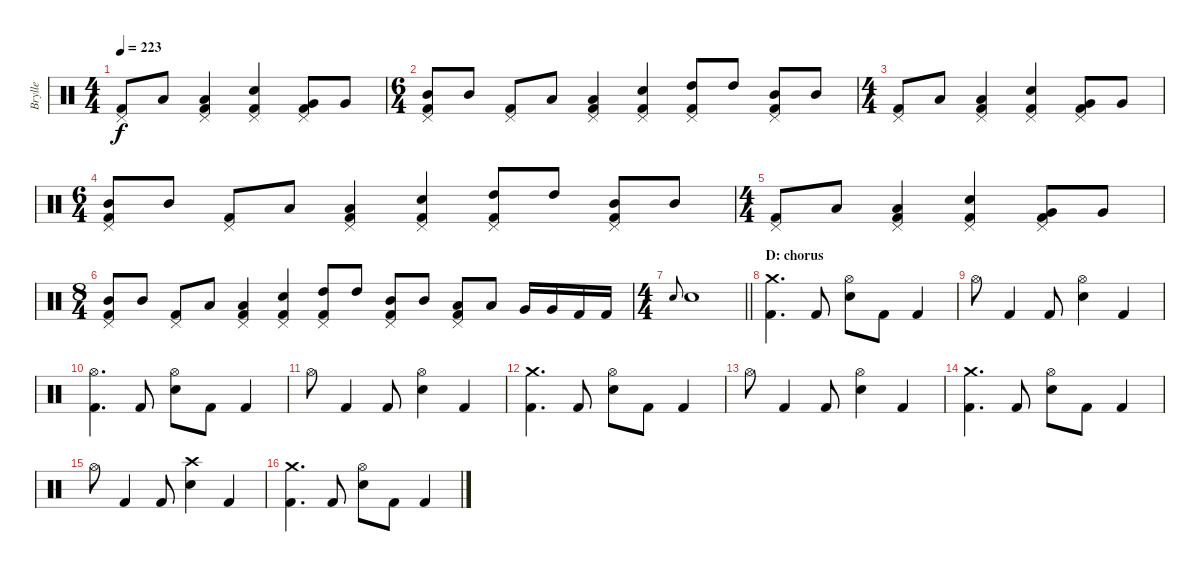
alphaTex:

\track ("Brylle" "Brylle") {instrument percussion}
\staff {score}
\articulation defaults
\ts (4 4)
\tempo 223
\clef neutral
\ks c
("Pedal Hi-Hat (hit)" "Kick (hit) 2").8{dy f} "Low Tom (hit)".8 ("Pedal Hi-Hat (hit)" "Low Tom (hit)" "Kick (hit) 2").4 ("Pedal Hi-Hat (hit)" "Electric Snare (hit)" "Kick (hit) 2").4 ("Pedal Hi-Hat (hit)" "Very Low Tom (hit)" "Kick (hit) 2").8 "Very Low Tom (hit)".8 |
\ts (6 4)
("Pedal Hi-Hat (hit)" "Mid Tom (hit)" "Kick (hit) 2").8 "Mid Tom (hit)".8 ("Pedal Hi-Hat (hit)" "Kick (hit) 2").8 "Low Tom (hit)".8 ("Pedal Hi-Hat (hit)" "Low Tom (hit)" "Kick (hit) 2").4 ("Pedal Hi-Hat (hit)" "Electric Snare (hit)" "Kick (hit) 2").4 ("Pedal Hi-Hat (hit)" "High Tom (hit)" "Kick (hit) 2").8 "High Tom (hit)".8 ("Pedal Hi-Hat (hit)" "Mid Tom (hit)" "Kick (hit) 2").8 "Mid Tom (hit)".8 |
\ts (4 4)
("Pedal Hi-Hat (hit)" "Kick (hit) 2").8 "Low Tom (hit)".8 ("Pedal Hi-Hat (hit)" "Low Tom (hit)" "Kick (hit) 2").4 ("Pedal Hi-Hat (hit)" "Electric Snare (hit)" "Kick (hit) 2").4 ("Pedal Hi-Hat (hit)" "Very Low Tom (hit)" "Kick (hit) 2").8 "Very Low Tom (hit)".8 |
\ts (6 4)
("Pedal Hi-Hat (hit)" "Mid Tom (hit)" "Kick (hit) 2").8 "Mid Tom (hit)".8 ("Pedal Hi-Hat (hit)" "Kick (hit) 2").8 "Low Tom (hit)".8 ("Pedal Hi-Hat (hit)" "Low Tom (hit)" "Kick (hit) 2").4 ("Pedal Hi-Hat (hit)" "Electric Snare (hit)" "Kick (hit) 2").4 ("Pedal Hi-Hat (hit)" "High Tom (hit)" "Kick (hit) 2").8 "High Tom (hit)".8 ("Pedal Hi-Hat (hit)" "Mid Tom (hit)" "Kick (hit) 2").8 "Mid Tom (hit)".8 |
\ts (4 4)
("Pedal Hi-Hat (hit)" "Kick (hit) 2").8 "Low Tom (hit)".8 ("Pedal Hi-Hat (hit)" "Low Tom (hit)" "Kick (hit) 2").4 ("Pedal Hi-Hat (hit)" "Electric Snare (hit)" "Kick (hit) 2").4 ("Pedal Hi-Hat (hit)" "Very Low Tom (hit)" "Kick (hit) 2").8 "Very Low Tom (hit)".8 |
\ts (8 4)
("Pedal Hi-Hat (hit)" "Mid Tom (hit)" "Kick (hit) 2").8 "Mid Tom (hit)".8 ("Pedal Hi-Hat (hit)" "Kick (hit) 2").8 "Low Tom (hit)".8 ("Pedal Hi-Hat (hit)" "Low Tom (hit)" "Kick (hit) 2").4 ("Pedal Hi-Hat (hit)" "Electric Snare (hit)" "Kick (hit) 2").4 ("Pedal Hi-Hat (hit)" "High Tom (hit)" "Kick (hit) 2").8 "High Tom (hit)".8 ("Pedal Hi-Hat (hit)" "Mid Tom (hit)" "Kick (hit) 2").8 "Mid Tom (hit)".8 ("Pedal Hi-Hat (hit)" "Low Tom (hit)" "Kick (hit) 2").8 "Low Tom (hit)".8 "Very Low Tom (hit)".16 "Very Low Tom (hit)".16 "Kick (hit) 2".16 "Kick (hit) 2".16 |
\ts (4 4)
\barLineRight lightlight "Electric Snare (hit)".8{gr onbeat} "Electric Snare (hit)".1
|
\section ("" "D: chorus")
("Crash medium (hit)" "Kick (hit) 2").4{d} "Kick (hit) 2".8 ("Hi-Hat (open)" "Electric Snare (hit)").8 "Kick (hit) 2".8 "Kick (hit) 2".4 |
"Hi-Hat (open)".8 "Kick (hit) 2".4 "Kick (hit) 2".8 ("Hi-Hat (open)" "Electric Snare (hit)").4 "Kick (hit) 2".4 |
("Hi-Hat (open)" "Kick (hit) 2").4{d} "Kick (hit) 2".8 ("Hi-Hat (open)" "Electric Snare (hit)").8 "Kick (hit) 2".8 "Kick (hit) 2".4 |
"Hi-Hat (open)".8 "Kick (hit) 2".4 "Kick (hit) 2".8 ("Hi-Hat (open)" "Electric Snare (hit)").4 "Kick (hit) 2".4 |
("Crash medium (hit)" "Kick (hit) 2").4{d} "Kick (hit) 2".8 ("Hi-Hat (open)" "Electric Snare (hit)").8 "Kick (hit) 2".8 "Kick (hit) 2".4 |
"Hi-Hat (open)".8 "Kick (hit) 2".4 "Kick (hit) 2".8 ("Hi-Hat (open)" "Electric Snare (hit)").4 "Kick (hit) 2".4 |
("Crash medium (hit)" "Kick (hit) 2").4{d} "Kick (hit) 2".8 ("Hi-Hat (open)" "Electric Snare (hit)").8 "Kick (hit) 2".8 "Kick (hit) 2".4 |
"Hi-Hat (open)".8 "Kick (hit) 2".4 "Kick (hit) 2".8 ("Crash high (hit)" "Electric Snare (hit)").4 "Kick (hit) 2".4 |
("Crash medium (hit)" "Kick (hit) 2").4{d} "Kick (hit) 2".8 ("Hi-Hat (open)" "Electric Snare (hit)").8 "Kick (hit) 2".8 "Kick (hit) 2".4
